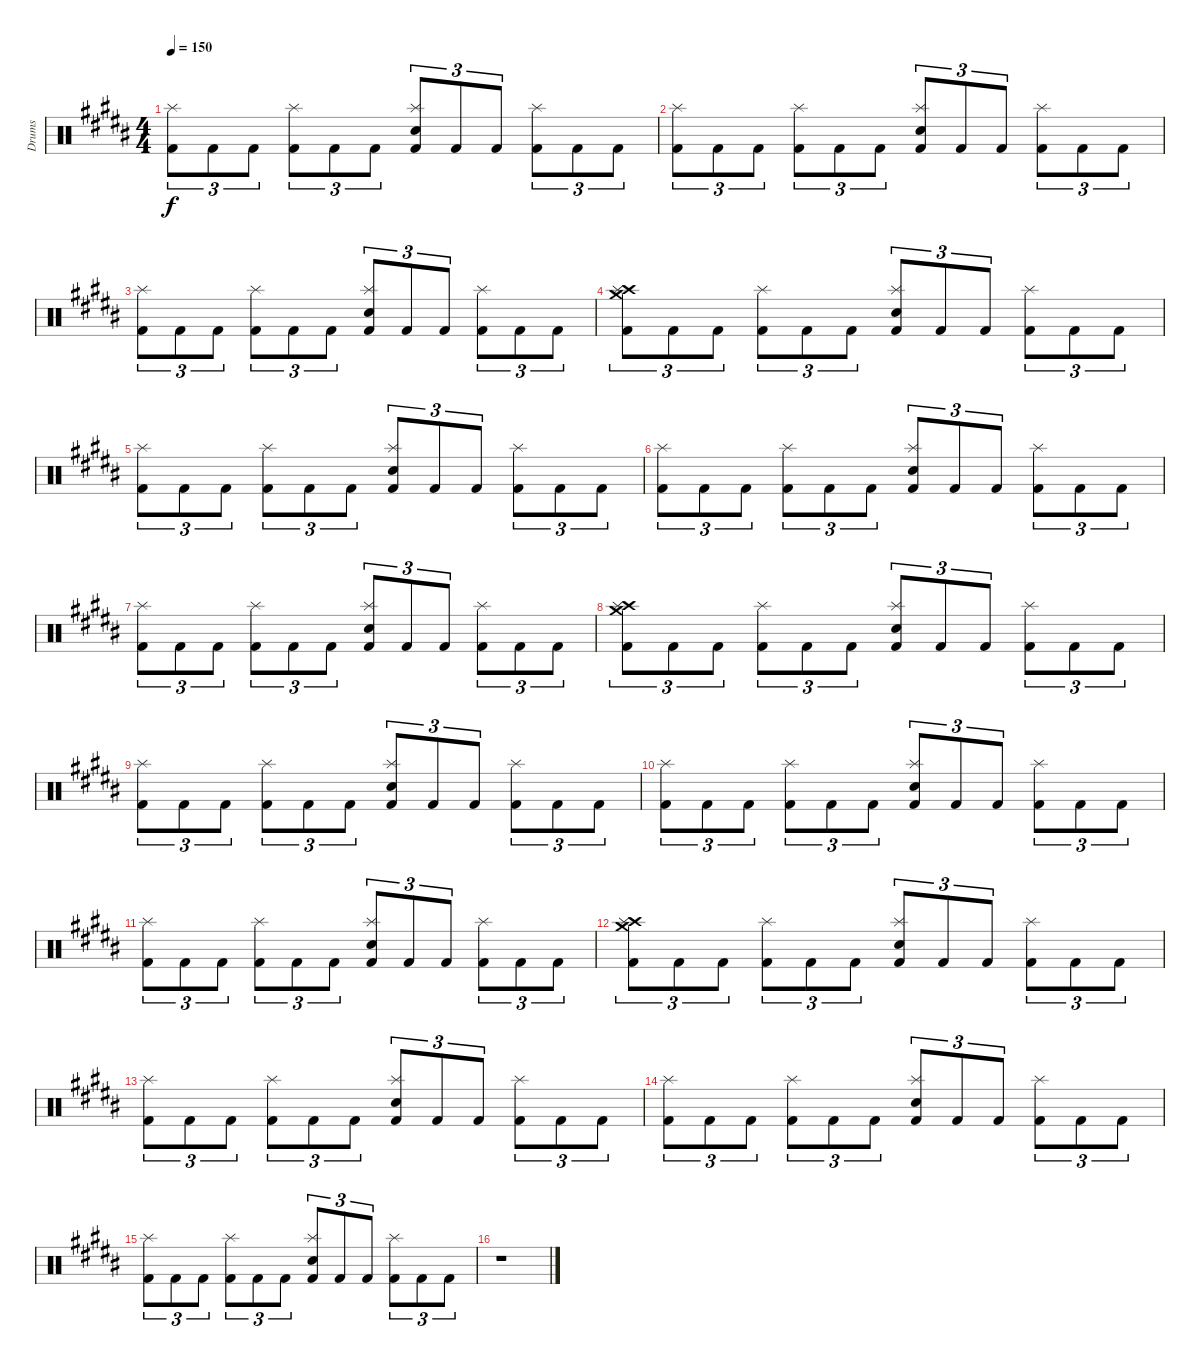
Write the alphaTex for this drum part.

\track ("Drums" "Drums") {instrument percussion}
\staff {score}
\articulation defaults
\ts (4 4)
\tempo 150
\clef neutral
\ks b
("Kick (hit) 2" "Splash (hit)").8{tu (3 2) dy f} "Kick (hit) 2".8{tu (3 2)} "Kick (hit) 2".8{tu (3 2)} ("Kick (hit) 2" "Splash (hit)").8{tu (3 2)} "Kick (hit) 2".8{tu (3 2)} "Kick (hit) 2".8{tu (3 2)} ("Kick (hit) 2" "Snare (hit) 2" "Splash (hit)").8{tu (3 2)} "Kick (hit) 2".8{tu (3 2)} "Kick (hit) 2".8{tu (3 2)} ("Kick (hit) 2" "Splash (hit)").8{tu (3 2)} "Kick (hit) 2".8{tu (3 2)} "Kick (hit) 2".8{tu (3 2)} |
("Kick (hit) 2" "Splash (hit)").8{tu (3 2)} "Kick (hit) 2".8{tu (3 2)} "Kick (hit) 2".8{tu (3 2)} ("Kick (hit) 2" "Splash (hit)").8{tu (3 2)} "Kick (hit) 2".8{tu (3 2)} "Kick (hit) 2".8{tu (3 2)} ("Kick (hit) 2" "Snare (hit) 2" "Splash (hit)").8{tu (3 2)} "Kick (hit) 2".8{tu (3 2)} "Kick (hit) 2".8{tu (3 2)} ("Kick (hit) 2" "Splash (hit)").8{tu (3 2)} "Kick (hit) 2".8{tu (3 2)} "Kick (hit) 2".8{tu (3 2)} |
("Kick (hit) 2" "Splash (hit)").8{tu (3 2)} "Kick (hit) 2".8{tu (3 2)} "Kick (hit) 2".8{tu (3 2)} ("Kick (hit) 2" "Splash (hit)").8{tu (3 2)} "Kick (hit) 2".8{tu (3 2)} "Kick (hit) 2".8{tu (3 2)} ("Kick (hit) 2" "Snare (hit) 2" "Splash (hit)").8{tu (3 2)} "Kick (hit) 2".8{tu (3 2)} "Kick (hit) 2".8{tu (3 2)} ("Kick (hit) 2" "Splash (hit)").8{tu (3 2)} "Kick (hit) 2".8{tu (3 2)} "Kick (hit) 2".8{tu (3 2)} |
("Kick (hit) 2" "Crash high (hit)" "Crash medium (hit)" "Splash (hit)").8{tu (3 2)} "Kick (hit) 2".8{tu (3 2)} "Kick (hit) 2".8{tu (3 2)} ("Kick (hit) 2" "Splash (hit)").8{tu (3 2)} "Kick (hit) 2".8{tu (3 2)} "Kick (hit) 2".8{tu (3 2)} ("Kick (hit) 2" "Snare (hit) 2" "Splash (hit)").8{tu (3 2)} "Kick (hit) 2".8{tu (3 2)} "Kick (hit) 2".8{tu (3 2)} ("Kick (hit) 2" "Splash (hit)").8{tu (3 2)} "Kick (hit) 2".8{tu (3 2)} "Kick (hit) 2".8{tu (3 2)} |
("Kick (hit) 2" "Splash (hit)").8{tu (3 2)} "Kick (hit) 2".8{tu (3 2)} "Kick (hit) 2".8{tu (3 2)} ("Kick (hit) 2" "Splash (hit)").8{tu (3 2)} "Kick (hit) 2".8{tu (3 2)} "Kick (hit) 2".8{tu (3 2)} ("Kick (hit) 2" "Snare (hit) 2" "Splash (hit)").8{tu (3 2)} "Kick (hit) 2".8{tu (3 2)} "Kick (hit) 2".8{tu (3 2)} ("Kick (hit) 2" "Splash (hit)").8{tu (3 2)} "Kick (hit) 2".8{tu (3 2)} "Kick (hit) 2".8{tu (3 2)} |
("Kick (hit) 2" "Splash (hit)").8{tu (3 2)} "Kick (hit) 2".8{tu (3 2)} "Kick (hit) 2".8{tu (3 2)} ("Kick (hit) 2" "Splash (hit)").8{tu (3 2)} "Kick (hit) 2".8{tu (3 2)} "Kick (hit) 2".8{tu (3 2)} ("Kick (hit) 2" "Snare (hit) 2" "Splash (hit)").8{tu (3 2)} "Kick (hit) 2".8{tu (3 2)} "Kick (hit) 2".8{tu (3 2)} ("Kick (hit) 2" "Splash (hit)").8{tu (3 2)} "Kick (hit) 2".8{tu (3 2)} "Kick (hit) 2".8{tu (3 2)} |
("Kick (hit) 2" "Splash (hit)").8{tu (3 2)} "Kick (hit) 2".8{tu (3 2)} "Kick (hit) 2".8{tu (3 2)} ("Kick (hit) 2" "Splash (hit)").8{tu (3 2)} "Kick (hit) 2".8{tu (3 2)} "Kick (hit) 2".8{tu (3 2)} ("Kick (hit) 2" "Snare (hit) 2" "Splash (hit)").8{tu (3 2)} "Kick (hit) 2".8{tu (3 2)} "Kick (hit) 2".8{tu (3 2)} ("Kick (hit) 2" "Splash (hit)").8{tu (3 2)} "Kick (hit) 2".8{tu (3 2)} "Kick (hit) 2".8{tu (3 2)} |
("Kick (hit) 2" "Crash high (hit)" "Crash medium (hit)" "Splash (hit)").8{tu (3 2)} "Kick (hit) 2".8{tu (3 2)} "Kick (hit) 2".8{tu (3 2)} ("Kick (hit) 2" "Splash (hit)").8{tu (3 2)} "Kick (hit) 2".8{tu (3 2)} "Kick (hit) 2".8{tu (3 2)} ("Kick (hit) 2" "Snare (hit) 2" "Splash (hit)").8{tu (3 2)} "Kick (hit) 2".8{tu (3 2)} "Kick (hit) 2".8{tu (3 2)} ("Kick (hit) 2" "Splash (hit)").8{tu (3 2)} "Kick (hit) 2".8{tu (3 2)} "Kick (hit) 2".8{tu (3 2)} |
("Kick (hit) 2" "Splash (hit)").8{tu (3 2)} "Kick (hit) 2".8{tu (3 2)} "Kick (hit) 2".8{tu (3 2)} ("Kick (hit) 2" "Splash (hit)").8{tu (3 2)} "Kick (hit) 2".8{tu (3 2)} "Kick (hit) 2".8{tu (3 2)} ("Kick (hit) 2" "Snare (hit) 2" "Splash (hit)").8{tu (3 2)} "Kick (hit) 2".8{tu (3 2)} "Kick (hit) 2".8{tu (3 2)} ("Kick (hit) 2" "Splash (hit)").8{tu (3 2)} "Kick (hit) 2".8{tu (3 2)} "Kick (hit) 2".8{tu (3 2)} |
("Kick (hit) 2" "Splash (hit)").8{tu (3 2)} "Kick (hit) 2".8{tu (3 2)} "Kick (hit) 2".8{tu (3 2)} ("Kick (hit) 2" "Splash (hit)").8{tu (3 2)} "Kick (hit) 2".8{tu (3 2)} "Kick (hit) 2".8{tu (3 2)} ("Kick (hit) 2" "Snare (hit) 2" "Splash (hit)").8{tu (3 2)} "Kick (hit) 2".8{tu (3 2)} "Kick (hit) 2".8{tu (3 2)} ("Kick (hit) 2" "Splash (hit)").8{tu (3 2)} "Kick (hit) 2".8{tu (3 2)} "Kick (hit) 2".8{tu (3 2)} |
("Kick (hit) 2" "Splash (hit)").8{tu (3 2)} "Kick (hit) 2".8{tu (3 2)} "Kick (hit) 2".8{tu (3 2)} ("Kick (hit) 2" "Splash (hit)").8{tu (3 2)} "Kick (hit) 2".8{tu (3 2)} "Kick (hit) 2".8{tu (3 2)} ("Kick (hit) 2" "Snare (hit) 2" "Splash (hit)").8{tu (3 2)} "Kick (hit) 2".8{tu (3 2)} "Kick (hit) 2".8{tu (3 2)} ("Kick (hit) 2" "Splash (hit)").8{tu (3 2)} "Kick (hit) 2".8{tu (3 2)} "Kick (hit) 2".8{tu (3 2)} |
("Kick (hit) 2" "Crash high (hit)" "Crash medium (hit)" "Splash (hit)").8{tu (3 2)} "Kick (hit) 2".8{tu (3 2)} "Kick (hit) 2".8{tu (3 2)} ("Kick (hit) 2" "Splash (hit)").8{tu (3 2)} "Kick (hit) 2".8{tu (3 2)} "Kick (hit) 2".8{tu (3 2)} ("Kick (hit) 2" "Snare (hit) 2" "Splash (hit)").8{tu (3 2)} "Kick (hit) 2".8{tu (3 2)} "Kick (hit) 2".8{tu (3 2)} ("Kick (hit) 2" "Splash (hit)").8{tu (3 2)} "Kick (hit) 2".8{tu (3 2)} "Kick (hit) 2".8{tu (3 2)} |
("Kick (hit) 2" "Splash (hit)").8{tu (3 2)} "Kick (hit) 2".8{tu (3 2)} "Kick (hit) 2".8{tu (3 2)} ("Kick (hit) 2" "Splash (hit)").8{tu (3 2)} "Kick (hit) 2".8{tu (3 2)} "Kick (hit) 2".8{tu (3 2)} ("Kick (hit) 2" "Snare (hit) 2" "Splash (hit)").8{tu (3 2)} "Kick (hit) 2".8{tu (3 2)} "Kick (hit) 2".8{tu (3 2)} ("Kick (hit) 2" "Splash (hit)").8{tu (3 2)} "Kick (hit) 2".8{tu (3 2)} "Kick (hit) 2".8{tu (3 2)} |
("Kick (hit) 2" "Splash (hit)").8{tu (3 2)} "Kick (hit) 2".8{tu (3 2)} "Kick (hit) 2".8{tu (3 2)} ("Kick (hit) 2" "Splash (hit)").8{tu (3 2)} "Kick (hit) 2".8{tu (3 2)} "Kick (hit) 2".8{tu (3 2)} ("Kick (hit) 2" "Snare (hit) 2" "Splash (hit)").8{tu (3 2)} "Kick (hit) 2".8{tu (3 2)} "Kick (hit) 2".8{tu (3 2)} ("Kick (hit) 2" "Splash (hit)").8{tu (3 2)} "Kick (hit) 2".8{tu (3 2)} "Kick (hit) 2".8{tu (3 2)} |
("Kick (hit) 2" "Splash (hit)").8{tu (3 2)} "Kick (hit) 2".8{tu (3 2)} "Kick (hit) 2".8{tu (3 2)} ("Kick (hit) 2" "Splash (hit)").8{tu (3 2)} "Kick (hit) 2".8{tu (3 2)} "Kick (hit) 2".8{tu (3 2)} ("Kick (hit) 2" "Snare (hit) 2" "Splash (hit)").8{tu (3 2)} "Kick (hit) 2".8{tu (3 2)} "Kick (hit) 2".8{tu (3 2)} ("Kick (hit) 2" "Splash (hit)").8{tu (3 2)} "Kick (hit) 2".8{tu (3 2)} "Kick (hit) 2".8{tu (3 2)} |
r.1
